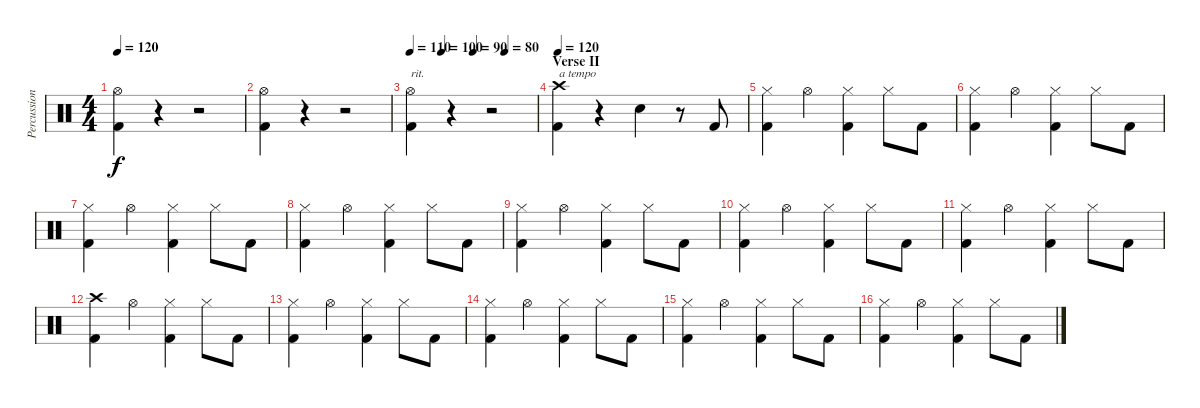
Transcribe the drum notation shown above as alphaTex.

\track ("Percussion" "Percussion") {instrument percussion}
\staff {score}
\articulation defaults
\ts (4 4)
\tempo 120
\clef neutral
\ks c
("Hi-Hat (open)" "Kick (hit) 2").4{dy f} r.4 r.2 |
("Hi-Hat (open)" "Kick (hit) 2").4 r.4 r.2 |
\tempo 110
\tempo (100 0.25)
\tempo (90 0.5)
\tempo (80 0.75)
("Hi-Hat (open)" "Kick (hit) 2").4{txt "rit."} r.4 r.2 |
\section ("" "Verse II")
\tempo 120
("Crash high (hit)" "Kick (hit) 2").4{txt "a tempo"} r.4 "Snare (hit) 2".4 r.8 "Kick (hit) 2".8 |
("Hi-Hat (closed)" "Kick (hit) 2").4 "Hi-Hat (open)".4 ("Hi-Hat (closed)" "Kick (hit) 2").4 "Hi-Hat (closed)".8 "Kick (hit) 2".8 |
("Hi-Hat (closed)" "Kick (hit) 2").4 "Hi-Hat (open)".4 ("Hi-Hat (closed)" "Kick (hit) 2").4 "Hi-Hat (closed)".8 "Kick (hit) 2".8 |
("Hi-Hat (closed)" "Kick (hit) 2").4 "Hi-Hat (open)".4 ("Hi-Hat (closed)" "Kick (hit) 2").4 "Hi-Hat (closed)".8 "Kick (hit) 2".8 |
("Hi-Hat (closed)" "Kick (hit) 2").4 "Hi-Hat (open)".4 ("Hi-Hat (closed)" "Kick (hit) 2").4 "Hi-Hat (closed)".8 "Kick (hit) 2".8 |
("Hi-Hat (closed)" "Kick (hit) 2").4 "Hi-Hat (open)".4 ("Hi-Hat (closed)" "Kick (hit) 2").4 "Hi-Hat (closed)".8 "Kick (hit) 2".8 |
("Hi-Hat (closed)" "Kick (hit) 2").4 "Hi-Hat (open)".4 ("Hi-Hat (closed)" "Kick (hit) 2").4 "Hi-Hat (closed)".8 "Kick (hit) 2".8 |
("Hi-Hat (closed)" "Kick (hit) 2").4 "Hi-Hat (open)".4 ("Hi-Hat (closed)" "Kick (hit) 2").4 "Hi-Hat (closed)".8 "Kick (hit) 2".8 |
("Crash high (hit)" "Kick (hit) 2").4 "Hi-Hat (open)".4 ("Hi-Hat (closed)" "Kick (hit) 2").4 "Hi-Hat (closed)".8 "Kick (hit) 2".8 |
("Hi-Hat (closed)" "Kick (hit) 2").4 "Hi-Hat (open)".4 ("Hi-Hat (closed)" "Kick (hit) 2").4 "Hi-Hat (closed)".8 "Kick (hit) 2".8 |
("Hi-Hat (closed)" "Kick (hit) 2").4 "Hi-Hat (open)".4 ("Hi-Hat (closed)" "Kick (hit) 2").4 "Hi-Hat (closed)".8 "Kick (hit) 2".8 |
("Hi-Hat (closed)" "Kick (hit) 2").4 "Hi-Hat (open)".4 ("Hi-Hat (closed)" "Kick (hit) 2").4 "Hi-Hat (closed)".8 "Kick (hit) 2".8 |
("Hi-Hat (closed)" "Kick (hit) 2").4 "Hi-Hat (open)".4 ("Hi-Hat (closed)" "Kick (hit) 2").4 "Hi-Hat (closed)".8 "Kick (hit) 2".8
